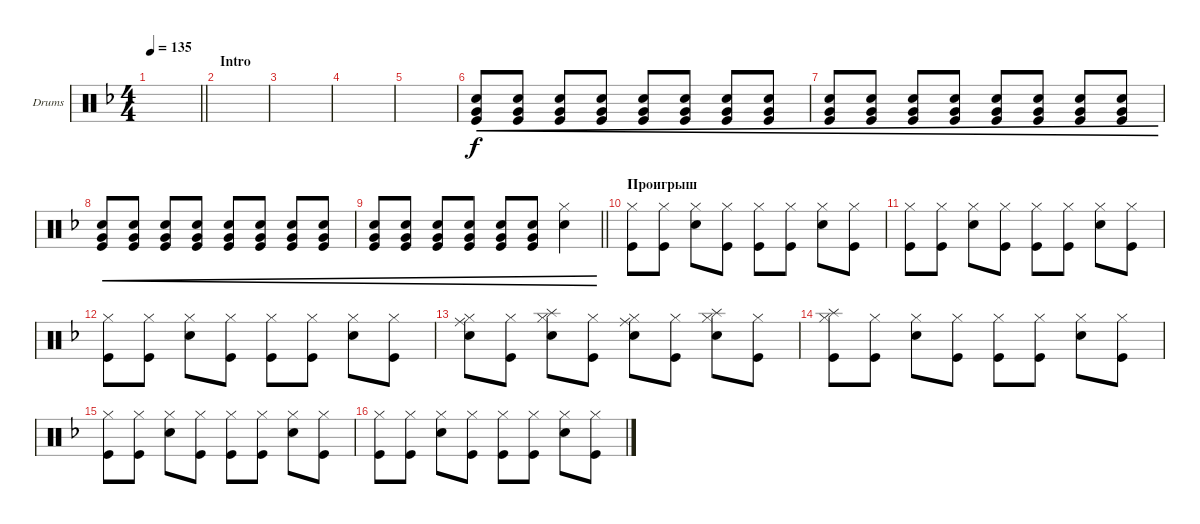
\bracketExtendMode groupsimilarinstruments
\firstSystemTrackNameOrientation horizontal
\otherSystemsTrackNameOrientation horizontal
\track ("Drumkitover" "Drums") {instrument percussion}
\staff {score}
\articulation defaults
\ts (4 4)
\beaming (8 2 2 2 2)
\tempo 135
\clef neutral
\scale
0.5
\barLineRight lightlight
\ks dminor
|
\section ("" "Intro")
\scale
0.25 |
\scale
0.25 |
\scale
0.333333 |
\scale
0.333333 |
\scale
0.333333 ("Very Low Tom (hit)" "Kick (hit)" "Snare (hit) 2").8{cre} ("Very Low Tom (hit)" "Kick (hit)" "Snare (hit) 2").8{cre} ("Very Low Tom (hit)" "Kick (hit)" "Snare (hit) 2").8{cre} ("Very Low Tom (hit)" "Kick (hit)" "Snare (hit) 2").8{cre} ("Very Low Tom (hit)" "Kick (hit)" "Snare (hit) 2").8{cre} ("Very Low Tom (hit)" "Kick (hit)" "Snare (hit) 2").8{cre} ("Very Low Tom (hit)" "Kick (hit)" "Snare (hit) 2").8{cre} ("Very Low Tom (hit)" "Kick (hit)" "Snare (hit) 2").8{cre} |
\scale
0.333333 ("Very Low Tom (hit)" "Kick (hit)" "Snare (hit) 2").8{cre} ("Very Low Tom (hit)" "Kick (hit)" "Snare (hit) 2").8{cre} ("Very Low Tom (hit)" "Kick (hit)" "Snare (hit) 2").8{cre} ("Very Low Tom (hit)" "Kick (hit)" "Snare (hit) 2").8{cre} ("Very Low Tom (hit)" "Kick (hit)" "Snare (hit) 2").8{cre} ("Very Low Tom (hit)" "Kick (hit)" "Snare (hit) 2").8{cre} ("Very Low Tom (hit)" "Kick (hit)" "Snare (hit) 2").8{cre} ("Very Low Tom (hit)" "Kick (hit)" "Snare (hit) 2").8{cre} |
\scale
0.333333 ("Very Low Tom (hit)" "Kick (hit)" "Snare (hit) 2").8{cre} ("Very Low Tom (hit)" "Kick (hit)" "Snare (hit) 2").8{cre} ("Very Low Tom (hit)" "Kick (hit)" "Snare (hit) 2").8{cre} ("Very Low Tom (hit)" "Kick (hit)" "Snare (hit) 2").8{cre} ("Very Low Tom (hit)" "Kick (hit)" "Snare (hit) 2").8{cre} ("Very Low Tom (hit)" "Kick (hit)" "Snare (hit) 2").8{cre} ("Very Low Tom (hit)" "Kick (hit)" "Snare (hit) 2").8{cre} ("Very Low Tom (hit)" "Kick (hit)" "Snare (hit) 2").8{cre} |
\scale
0.333333
\barLineRight lightlight
("Very Low Tom (hit)" "Kick (hit)" "Snare (hit) 2").8{cre} ("Very Low Tom (hit)" "Kick (hit)" "Snare (hit) 2").8{cre} ("Very Low Tom (hit)" "Kick (hit)" "Snare (hit) 2").8{cre} ("Very Low Tom (hit)" "Kick (hit)" "Snare (hit) 2").8{cre} ("Very Low Tom (hit)" "Kick (hit)" "Snare (hit) 2").8{cre} ("Very Low Tom (hit)" "Kick (hit)" "Snare (hit) 2").8{cre} ("Snare (hit) 2" "Hi-Hat (closed)").4{cre dy f} |
\section ("" "Проигрыш")
\scale
0.333333 ("Kick (hit)" "Hi-Hat (closed)").8 ("Kick (hit)" "Hi-Hat (closed)").8 ("Snare (hit) 2" "Hi-Hat (closed)").8 ("Kick (hit)" "Hi-Hat (closed)").8 ("Kick (hit)" "Hi-Hat (closed)").8 ("Kick (hit)" "Hi-Hat (closed)").8 ("Snare (hit) 2" "Hi-Hat (closed)").8 ("Kick (hit)" "Hi-Hat (closed)").8 |
\scale
0.333333 ("Kick (hit)" "Hi-Hat (closed)").8 ("Kick (hit)" "Hi-Hat (closed)").8 ("Snare (hit) 2" "Hi-Hat (closed)").8 ("Kick (hit)" "Hi-Hat (closed)").8 ("Kick (hit)" "Hi-Hat (closed)").8 ("Kick (hit)" "Hi-Hat (closed)").8 ("Snare (hit) 2" "Hi-Hat (closed)").8 ("Kick (hit)" "Hi-Hat (closed)").8 |
\scale
0.333333 ("Kick (hit)" "Hi-Hat (closed)").8 ("Kick (hit)" "Hi-Hat (closed)").8 ("Snare (hit) 2" "Hi-Hat (closed)").8 ("Kick (hit)" "Hi-Hat (closed)").8 ("Kick (hit)" "Hi-Hat (closed)").8 ("Kick (hit)" "Hi-Hat (closed)").8 ("Snare (hit) 2" "Hi-Hat (closed)").8 ("Kick (hit)" "Hi-Hat (closed)").8 |
\scale
0.333333 ("Snare (hit) 2" "Hi-Hat (closed)" "Ride (middle)").8 ("Kick (hit)" "Hi-Hat (closed)").8 ("Snare (hit) 2" "Hi-Hat (closed)" "Splash (hit)").8 ("Kick (hit)" "Hi-Hat (closed)").8 ("Snare (hit) 2" "Hi-Hat (closed)" "Ride (middle)").8 ("Kick (hit)" "Hi-Hat (closed)").8 ("Snare (hit) 2" "Hi-Hat (closed)" "Splash (hit)").8 ("Kick (hit)" "Hi-Hat (closed)").8 |
\scale
0.333333 ("Kick (hit)" "Hi-Hat (closed)" "Splash (hit)").8 ("Kick (hit)" "Hi-Hat (closed)").8 ("Snare (hit) 2" "Hi-Hat (closed)").8 ("Kick (hit)" "Hi-Hat (closed)").8 ("Kick (hit)" "Hi-Hat (closed)").8 ("Kick (hit)" "Hi-Hat (closed)").8 ("Snare (hit) 2" "Hi-Hat (closed)").8 ("Kick (hit)" "Hi-Hat (closed)").8 |
\scale
0.333333 ("Kick (hit)" "Hi-Hat (closed)").8 ("Kick (hit)" "Hi-Hat (closed)").8 ("Snare (hit) 2" "Hi-Hat (closed)").8 ("Kick (hit)" "Hi-Hat (closed)").8 ("Kick (hit)" "Hi-Hat (closed)").8 ("Kick (hit)" "Hi-Hat (closed)").8 ("Snare (hit) 2" "Hi-Hat (closed)").8 ("Kick (hit)" "Hi-Hat (closed)").8 |
\scale
0.333333 ("Kick (hit)" "Hi-Hat (closed)").8 ("Kick (hit)" "Hi-Hat (closed)").8 ("Snare (hit) 2" "Hi-Hat (closed)").8 ("Kick (hit)" "Hi-Hat (closed)").8 ("Kick (hit)" "Hi-Hat (closed)").8 ("Kick (hit)" "Hi-Hat (closed)").8 ("Snare (hit) 2" "Hi-Hat (closed)").8 ("Kick (hit)" "Hi-Hat (closed)").8
